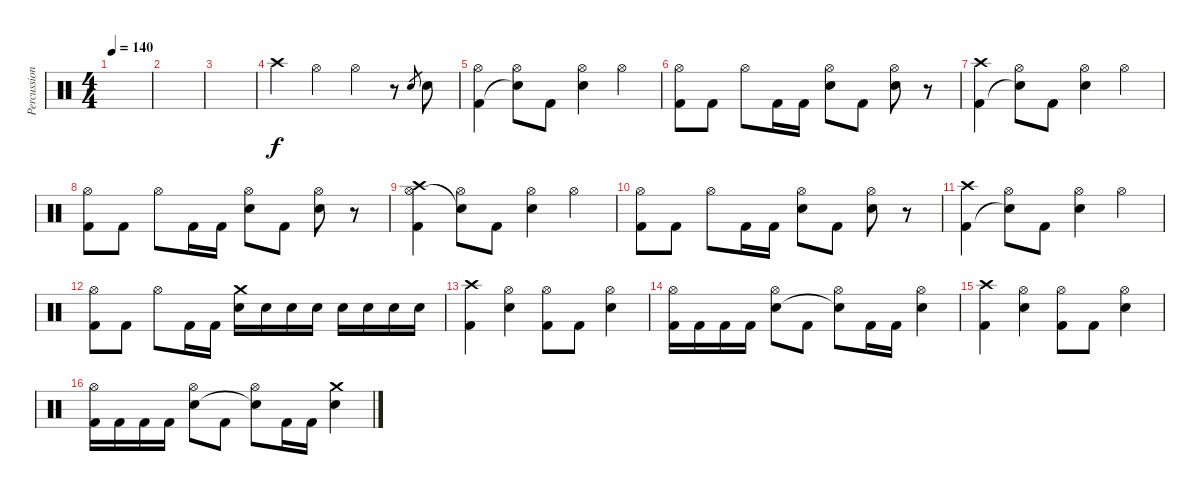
\track ("Percussion" "Percussion") {instrument percussion}
\staff {score}
\articulation defaults
\ts (4 4)
\tempo 140
\clef neutral
\ks c
|
|
|
"Crash high (hit)".4 "Hi-Hat (open)".4 "Hi-Hat (open)".4 r.8 "Snare (hit) 2".8{gr} "Snare (hit) 2".8 |
("Hi-Hat (open)" "Kick (hit) 2").4 ("Hi-Hat (open)" "Snare (hit)"{t}).8 "Kick (hit) 2".8 ("Hi-Hat (open)" "Snare (hit) 2").4 "Hi-Hat (open)".4 |
("Hi-Hat (open)" "Kick (hit) 2").8 "Kick (hit) 2".8 "Hi-Hat (open)".8 "Kick (hit) 2".16 "Kick (hit) 2".16 ("Hi-Hat (open)" "Snare (hit) 2").8 "Kick (hit) 2".8 ("Hi-Hat (open)" "Snare (hit) 2").8 r.8 |
("Crash high (hit)" "Kick (hit) 2").4 ("Hi-Hat (open)" "Snare (hit)"{t}).8 "Kick (hit) 2".8 ("Hi-Hat (open)" "Snare (hit) 2").4 "Hi-Hat (open)".4 |
("Hi-Hat (open)" "Kick (hit) 2").8 "Kick (hit) 2".8 "Hi-Hat (open)".8 "Kick (hit) 2".16 "Kick (hit) 2".16 ("Hi-Hat (open)" "Snare (hit) 2").8 "Kick (hit) 2".8 ("Hi-Hat (open)" "Snare (hit) 2").8 r.8 |
("Crash high (hit)" "Hi-Hat (open)" "Kick (hit) 2").4 ("Hi-Hat (open)" "Snare (hit)"{t}).8 "Kick (hit) 2".8 ("Hi-Hat (open)" "Snare (hit) 2").4 "Hi-Hat (open)".4 |
("Hi-Hat (open)" "Kick (hit) 2").8 "Kick (hit) 2".8 "Hi-Hat (open)".8 "Kick (hit) 2".16 "Kick (hit) 2".16 ("Hi-Hat (open)" "Snare (hit) 2").8 "Kick (hit) 2".8 ("Hi-Hat (open)" "Snare (hit) 2").8 r.8 |
("Crash high (hit)" "Kick (hit) 2").4 ("Hi-Hat (open)" "Snare (hit)"{t}).8 "Kick (hit) 2".8 ("Hi-Hat (open)" "Snare (hit) 2").4 "Hi-Hat (open)".4 |
("Hi-Hat (open)" "Kick (hit) 2").8 "Kick (hit) 2".8 "Hi-Hat (open)".8 "Kick (hit) 2".16 "Kick (hit) 2".16 ("Crash medium (hit)" "Snare (hit) 2").16 "Snare (hit) 2".16 "Snare (hit) 2".16 "Snare (hit) 2".16 "Snare (hit) 2".16 "Snare (hit) 2".16 "Snare (hit) 2".16 "Snare (hit) 2".16 |
("Crash high (hit)" "Kick (hit) 2").4 ("Hi-Hat (open)" "Snare (hit) 2").4 ("Hi-Hat (open)" "Kick (hit) 2").8 "Kick (hit) 2".8 ("Hi-Hat (open)" "Snare (hit) 2").4 |
("Hi-Hat (open)" "Kick (hit) 2").16 "Kick (hit) 2".16 "Kick (hit) 2".16 "Kick (hit) 2".16 ("Hi-Hat (open)" "Snare (hit) 2").8 "Kick (hit) 2".8 ("Hi-Hat (open)" "Snare (hit)"{t}).8 "Kick (hit) 2".16 "Kick (hit) 2".16 ("Hi-Hat (open)" "Snare (hit) 2").4 |
("Crash high (hit)" "Kick (hit) 2").4 ("Hi-Hat (open)" "Snare (hit) 2").4 ("Hi-Hat (open)" "Kick (hit) 2").8 "Kick (hit) 2".8 ("Hi-Hat (open)" "Snare (hit) 2").4 |
("Hi-Hat (open)" "Kick (hit) 2").16 "Kick (hit) 2".16 "Kick (hit) 2".16 "Kick (hit) 2".16 ("Hi-Hat (open)" "Snare (hit) 2").8 "Kick (hit) 2".8 ("Hi-Hat (open)" "Snare (hit)"{t}).8 "Kick (hit) 2".16 "Kick (hit) 2".16 ("Crash medium (hit)" "Snare (hit) 2").4
